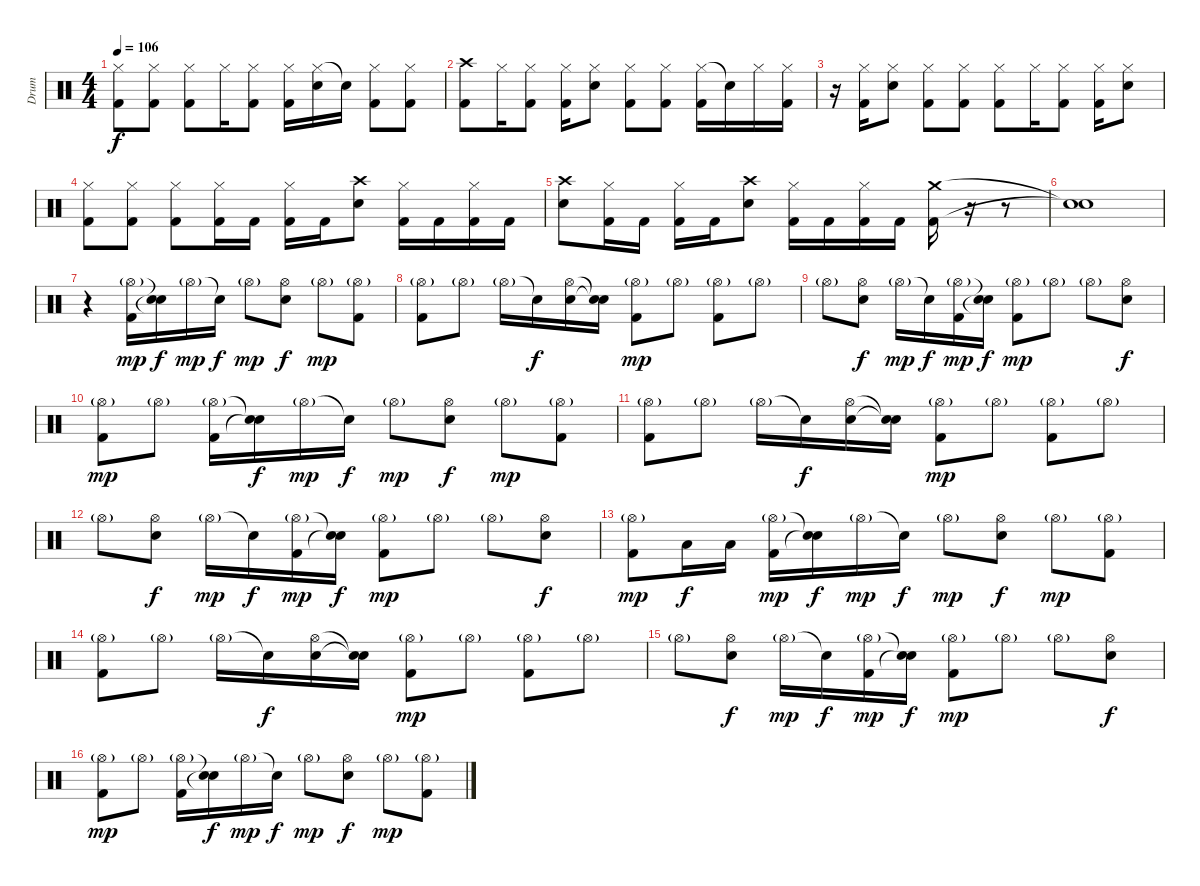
\track ("Drum" "Drum") {instrument percussion}
\staff {score}
\articulation defaults
\ts (4 4)
\tempo 106
\clef neutral
\ks c
("Hi-Hat (closed)" "Kick (hit) 2").8{dy f} ("Hi-Hat (closed)" "Kick (hit) 2").8 ("Hi-Hat (closed)" "Kick (hit) 2").8 "Hi-Hat (closed)".16 ("Hi-Hat (closed)" "Kick (hit) 2").8 ("Hi-Hat (closed)" "Kick (hit) 2").16 ("Hi-Hat (closed)" "Electric Snare (hit)").16 "Snare (hit)"{t}.16 ("Hi-Hat (closed)" "Kick (hit) 2").8 ("Hi-Hat (closed)" "Kick (hit) 2").8 |
("Crash high (hit)" "Kick (hit) 2").8 "Hi-Hat (closed)".16 ("Hi-Hat (closed)" "Kick (hit) 2").8 ("Hi-Hat (closed)" "Kick (hit) 2").16 ("Hi-Hat (closed)" "Electric Snare (hit)").8 ("Hi-Hat (closed)" "Kick (hit) 2").8 ("Hi-Hat (closed)" "Kick (hit) 2").8 ("Hi-Hat (closed)" "Kick (hit) 2").16 "Snare (hit)"{t}.16 "Hi-Hat (closed)".16 ("Hi-Hat (closed)" "Kick (hit) 2").16 |
r.16 ("Hi-Hat (closed)" "Kick (hit) 2").16 ("Hi-Hat (closed)" "Electric Snare (hit)").8 ("Hi-Hat (closed)" "Kick (hit) 2").8 ("Hi-Hat (closed)" "Kick (hit) 2").8 ("Hi-Hat (closed)" "Kick (hit) 2").8 "Hi-Hat (closed)".16 ("Hi-Hat (closed)" "Kick (hit) 2").8 ("Hi-Hat (closed)" "Kick (hit) 2").16 ("Hi-Hat (closed)" "Electric Snare (hit)").8 |
("Hi-Hat (closed)" "Kick (hit) 2").8 ("Hi-Hat (closed)" "Kick (hit) 2").8 ("Hi-Hat (closed)" "Kick (hit) 2").8 ("Hi-Hat (closed)" "Kick (hit) 2").16 "Kick (hit) 2".16 ("Hi-Hat (closed)" "Kick (hit) 2").16 "Kick (hit) 2".16 ("Crash high (hit)" "Electric Snare (hit)").8 ("Hi-Hat (closed)" "Kick (hit) 2").16 "Kick (hit) 2".16 ("Hi-Hat (closed)" "Kick (hit) 2").16 "Kick (hit) 2".16 |
("Crash high (hit)" "Electric Snare (hit)").8 ("Hi-Hat (closed)" "Kick (hit) 2").16 "Kick (hit) 2".16 ("Hi-Hat (closed)" "Kick (hit) 2").16 "Kick (hit) 2".16 ("Crash high (hit)" "Electric Snare (hit)").8 ("Hi-Hat (closed)" "Kick (hit) 2").16 "Kick (hit) 2".16 ("Hi-Hat (closed)" "Kick (hit) 2").16 "Kick (hit) 2".16 ("Crash medium (hit)" "Kick (hit) 2").16 r.16 r.8 |
("Snare (hit)"{t} "Snare (hit)"{t}).1 |
r.4 ("Hi-Hat (open)"{g} "Kick (hit) 2").16{dy mp} ("Snare (hit)"{t} "Snare (hit)"{t}).16{dy f} "Hi-Hat (open)"{g}.16{dy mp} "Snare (hit)"{t}.16{dy f} "Hi-Hat (open)"{g}.8{dy mp} ("Hi-Hat (open)" "Electric Snare (hit)").8{dy f} "Hi-Hat (open)"{g}.8{dy mp} ("Hi-Hat (open)"{g} "Kick (hit) 2").8 |
("Hi-Hat (open)"{g} "Kick (hit) 2").8 "Hi-Hat (open)"{g}.8 "Hi-Hat (open)"{g}.16 "Snare (hit)"{t}.16{dy f} ("Hi-Hat (open)" "Electric Snare (hit)").16 ("Snare (hit)"{t} "Snare (hit)"{t}).16 ("Hi-Hat (open)"{g} "Kick (hit) 2").8{dy mp} "Hi-Hat (open)"{g}.8 ("Hi-Hat (open)"{g} "Kick (hit) 2").8 "Hi-Hat (open)"{g}.8 |
"Hi-Hat (open)"{g}.8 ("Hi-Hat (open)" "Electric Snare (hit)").8{dy f} "Hi-Hat (open)"{g}.16{dy mp} "Snare (hit)"{t}.16{dy f} ("Hi-Hat (open)"{g} "Kick (hit) 2").16{dy mp} ("Snare (hit)"{t} "Snare (hit)"{t}).16{dy f} ("Hi-Hat (open)"{g} "Kick (hit) 2").8{dy mp} "Hi-Hat (open)"{g}.8 "Hi-Hat (open)"{g}.8 ("Hi-Hat (open)" "Electric Snare (hit)").8{dy f} |
("Hi-Hat (open)"{g} "Kick (hit) 2").8{dy mp} "Hi-Hat (open)"{g}.8 ("Hi-Hat (open)"{g} "Kick (hit) 2").16 ("Snare (hit)"{t} "Snare (hit)"{t}).16{dy f} "Hi-Hat (open)"{g}.16{dy mp} "Snare (hit)"{t}.16{dy f} "Hi-Hat (open)"{g}.8{dy mp} ("Hi-Hat (open)" "Electric Snare (hit)").8{dy f} "Hi-Hat (open)"{g}.8{dy mp} ("Hi-Hat (open)"{g} "Kick (hit) 2").8 |
("Hi-Hat (open)"{g} "Kick (hit) 2").8 "Hi-Hat (open)"{g}.8 "Hi-Hat (open)"{g}.16 "Snare (hit)"{t}.16{dy f} ("Hi-Hat (open)" "Electric Snare (hit)").16 ("Snare (hit)"{t} "Snare (hit)"{t}).16 ("Hi-Hat (open)"{g} "Kick (hit) 2").8{dy mp} "Hi-Hat (open)"{g}.8 ("Hi-Hat (open)"{g} "Kick (hit) 2").8 "Hi-Hat (open)"{g}.8 |
"Hi-Hat (open)"{g}.8 ("Hi-Hat (open)" "Electric Snare (hit)").8{dy f} "Hi-Hat (open)"{g}.16{dy mp} "Snare (hit)"{t}.16{dy f} ("Hi-Hat (open)"{g} "Kick (hit) 2").16{dy mp} ("Snare (hit)"{t} "Snare (hit)"{t}).16{dy f} ("Hi-Hat (open)"{g} "Kick (hit) 2").8{dy mp} "Hi-Hat (open)"{g}.8 "Hi-Hat (open)"{g}.8 ("Hi-Hat (open)" "Electric Snare (hit)").8{dy f} |
("Hi-Hat (open)"{g} "Kick (hit) 2").8{dy mp} "Low Tom (hit)".16{dy f} "Low Floor Tom (hit)".16 ("Hi-Hat (open)"{g} "Kick (hit) 2").16{dy mp} ("Snare (hit)"{t} "Snare (hit)"{t}).16{dy f} "Hi-Hat (open)"{g}.16{dy mp} "Snare (hit)"{t}.16{dy f} "Hi-Hat (open)"{g}.8{dy mp} ("Hi-Hat (open)" "Electric Snare (hit)").8{dy f} "Hi-Hat (open)"{g}.8{dy mp} ("Hi-Hat (open)"{g} "Kick (hit) 2").8 |
("Hi-Hat (open)"{g} "Kick (hit) 2").8 "Hi-Hat (open)"{g}.8 "Hi-Hat (open)"{g}.16 "Snare (hit)"{t}.16{dy f} ("Hi-Hat (open)" "Electric Snare (hit)").16 ("Snare (hit)"{t} "Snare (hit)"{t}).16 ("Hi-Hat (open)"{g} "Kick (hit) 2").8{dy mp} "Hi-Hat (open)"{g}.8 ("Hi-Hat (open)"{g} "Kick (hit) 2").8 "Hi-Hat (open)"{g}.8 |
"Hi-Hat (open)"{g}.8 ("Hi-Hat (open)" "Electric Snare (hit)").8{dy f} "Hi-Hat (open)"{g}.16{dy mp} "Snare (hit)"{t}.16{dy f} ("Hi-Hat (open)"{g} "Kick (hit) 2").16{dy mp} ("Snare (hit)"{t} "Snare (hit)"{t}).16{dy f} ("Hi-Hat (open)"{g} "Kick (hit) 2").8{dy mp} "Hi-Hat (open)"{g}.8 "Hi-Hat (open)"{g}.8 ("Hi-Hat (open)" "Electric Snare (hit)").8{dy f} |
("Hi-Hat (open)"{g} "Kick (hit) 2").8{dy mp} "Hi-Hat (open)"{g}.8 ("Hi-Hat (open)"{g} "Kick (hit) 2").16 ("Snare (hit)"{t} "Snare (hit)"{t}).16{dy f} "Hi-Hat (open)"{g}.16{dy mp} "Snare (hit)"{t}.16{dy f} "Hi-Hat (open)"{g}.8{dy mp} ("Hi-Hat (open)" "Electric Snare (hit)").8{dy f} "Hi-Hat (open)"{g}.8{dy mp} ("Hi-Hat (open)"{g} "Kick (hit) 2").8
